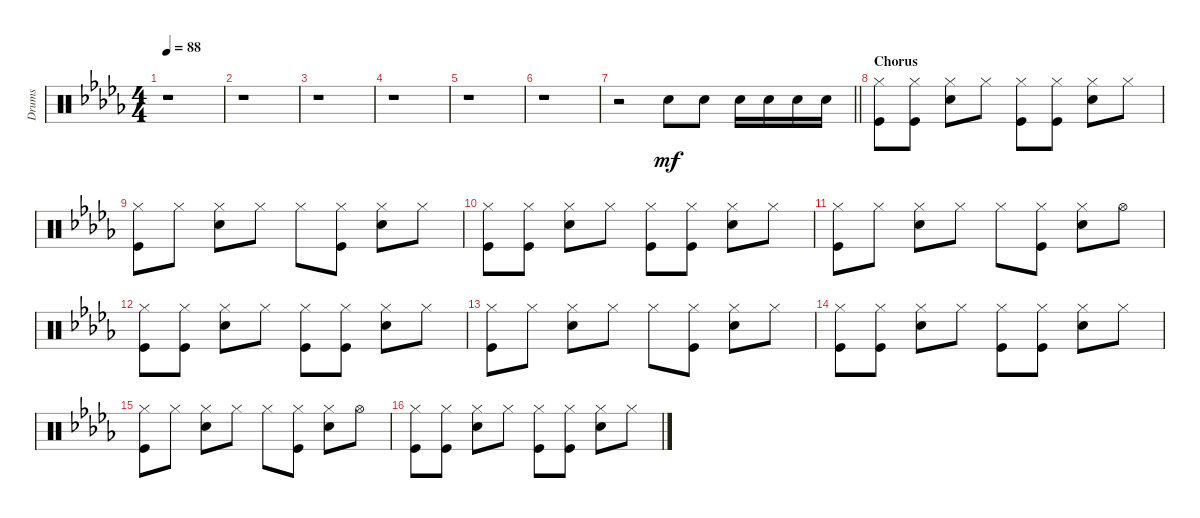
\track ("Drums" "Drums") {instrument percussion}
\staff {score}
\articulation defaults
\ts (4 4)
\tempo 88
\clef neutral
\ks bbminor
r.1{dy mf} |
r.1 |
r.1 |
r.1 |
r.1 |
r.1 |
\barLineRight lightlight
r.2 "Electric Snare (hit)".8 "Electric Snare (hit)".8 "Electric Snare (hit)".16 "Electric Snare (hit)".16 "Electric Snare (hit)".16 "Electric Snare (hit)".16 |
\section ("" "Chorus")
("Hi-Hat (closed)" "Kick (hit)").8 ("Hi-Hat (closed)" "Kick (hit)").8 ("Hi-Hat (closed)" "Electric Snare (hit)").8 "Hi-Hat (closed)".8 ("Hi-Hat (closed)" "Kick (hit)").8 ("Hi-Hat (closed)" "Kick (hit)").8 ("Hi-Hat (closed)" "Electric Snare (hit)").8 "Hi-Hat (closed)".8 |
("Hi-Hat (closed)" "Kick (hit)").8 "Hi-Hat (closed)".8 ("Hi-Hat (closed)" "Electric Snare (hit)").8 "Hi-Hat (closed)".8 "Hi-Hat (closed)".8 ("Hi-Hat (closed)" "Kick (hit)").8 ("Hi-Hat (closed)" "Electric Snare (hit)").8 "Hi-Hat (closed)".8 |
("Hi-Hat (closed)" "Kick (hit)").8 ("Hi-Hat (closed)" "Kick (hit)").8 ("Hi-Hat (closed)" "Electric Snare (hit)").8 "Hi-Hat (closed)".8 ("Hi-Hat (closed)" "Kick (hit)").8 ("Hi-Hat (closed)" "Kick (hit)").8 ("Hi-Hat (closed)" "Electric Snare (hit)").8 "Hi-Hat (closed)".8 |
("Hi-Hat (closed)" "Kick (hit)").8 "Hi-Hat (closed)".8 ("Hi-Hat (closed)" "Electric Snare (hit)").8 "Hi-Hat (closed)".8 "Hi-Hat (closed)".8 ("Hi-Hat (closed)" "Kick (hit)").8 ("Hi-Hat (closed)" "Electric Snare (hit)").8 "Hi-Hat (open)".8 |
("Hi-Hat (closed)" "Kick (hit)").8 ("Hi-Hat (closed)" "Kick (hit)").8 ("Hi-Hat (closed)" "Electric Snare (hit)").8 "Hi-Hat (closed)".8 ("Hi-Hat (closed)" "Kick (hit)").8 ("Hi-Hat (closed)" "Kick (hit)").8 ("Hi-Hat (closed)" "Electric Snare (hit)").8 "Hi-Hat (closed)".8 |
("Hi-Hat (closed)" "Kick (hit)").8 "Hi-Hat (closed)".8 ("Hi-Hat (closed)" "Electric Snare (hit)").8 "Hi-Hat (closed)".8 "Hi-Hat (closed)".8 ("Hi-Hat (closed)" "Kick (hit)").8 ("Hi-Hat (closed)" "Electric Snare (hit)").8 "Hi-Hat (closed)".8 |
("Hi-Hat (closed)" "Kick (hit)").8 ("Hi-Hat (closed)" "Kick (hit)").8 ("Hi-Hat (closed)" "Electric Snare (hit)").8 "Hi-Hat (closed)".8 ("Hi-Hat (closed)" "Kick (hit)").8 ("Hi-Hat (closed)" "Kick (hit)").8 ("Hi-Hat (closed)" "Electric Snare (hit)").8 "Hi-Hat (closed)".8 |
("Hi-Hat (closed)" "Kick (hit)").8 "Hi-Hat (closed)".8 ("Hi-Hat (closed)" "Electric Snare (hit)").8 "Hi-Hat (closed)".8 "Hi-Hat (closed)".8 ("Hi-Hat (closed)" "Kick (hit)").8 ("Hi-Hat (closed)" "Electric Snare (hit)").8 "Hi-Hat (open)".8 |
("Hi-Hat (closed)" "Kick (hit)").8 ("Hi-Hat (closed)" "Kick (hit)").8 ("Hi-Hat (closed)" "Electric Snare (hit)").8 "Hi-Hat (closed)".8 ("Hi-Hat (closed)" "Kick (hit)").8 ("Hi-Hat (closed)" "Kick (hit)").8 ("Hi-Hat (closed)" "Electric Snare (hit)").8 "Hi-Hat (closed)".8
